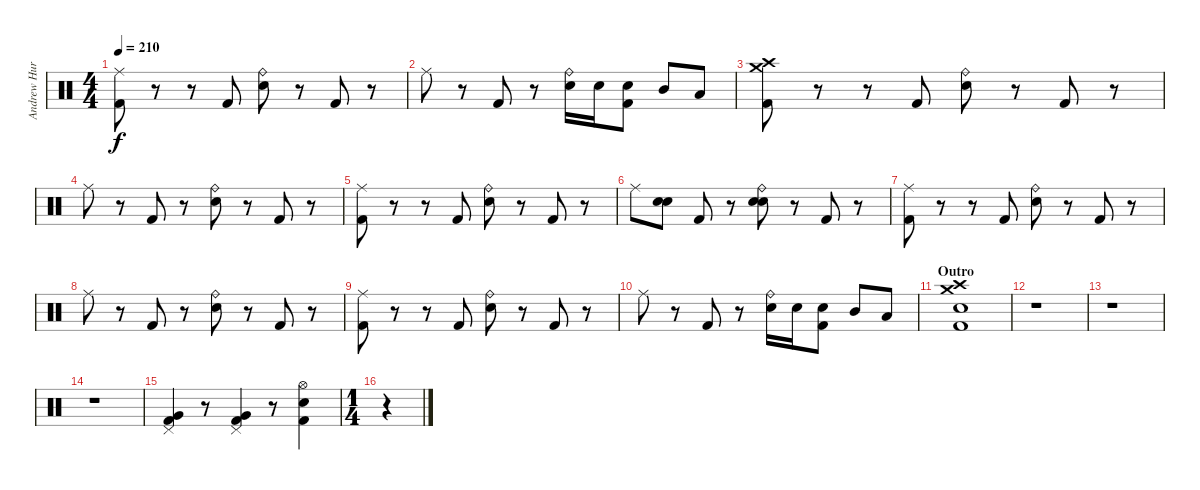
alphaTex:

\track ("Andrew Hurley (Drums)" "Andrew Hur") {instrument percussion}
\staff {score}
\articulation defaults
\ts (4 4)
\tempo 210
\clef neutral
\ks c
("Ride (middle)" "Kick (hit) 2").8{dy f} r.8 r.8 "Kick (hit) 2".8 ("Ride (bell)" "Electric Snare (hit)").8 r.8 "Kick (hit) 2".8 r.8 |
"Ride (middle)".8 r.8 "Kick (hit) 2".8 r.8 ("Ride (bell)" "Electric Snare (hit)").16 "Electric Snare (hit)".16 ("Electric Snare (hit)" "Kick (hit) 2").8 "Mid Tom (hit)".8 "Low Tom (hit)".8 |
("Crash medium (hit)" "Crash high (hit)" "Kick (hit) 2").8 r.8 r.8 "Kick (hit) 2".8 ("Ride (bell)" "Electric Snare (hit)").8 r.8 "Kick (hit) 2".8 r.8 |
"Ride (middle)".8 r.8 "Kick (hit) 2".8 r.8 ("Ride (bell)" "Electric Snare (hit)").8 r.8 "Kick (hit) 2".8 r.8 |
("Ride (middle)" "Kick (hit) 2").8 r.8 r.8 "Kick (hit) 2".8 ("Ride (bell)" "Electric Snare (hit)").8 r.8 "Kick (hit) 2".8 r.8 |
"Ride (middle)".8 ("Snare (hit) 2" "Electric Snare (hit)").8 "Kick (hit) 2".8 r.8 ("Ride (bell)" "Snare (hit) 2" "Electric Snare (hit)").8 r.8 "Kick (hit) 2".8 r.8 |
("Ride (middle)" "Kick (hit) 2").8 r.8 r.8 "Kick (hit) 2".8 ("Ride (bell)" "Electric Snare (hit)").8 r.8 "Kick (hit) 2".8 r.8 |
"Ride (middle)".8 r.8 "Kick (hit) 2".8 r.8 ("Ride (bell)" "Electric Snare (hit)").8 r.8 "Kick (hit) 2".8 r.8 |
("Ride (middle)" "Kick (hit) 2").8 r.8 r.8 "Kick (hit) 2".8 ("Ride (bell)" "Electric Snare (hit)").8 r.8 "Kick (hit) 2".8 r.8 |
"Ride (middle)".8 r.8 "Kick (hit) 2".8 r.8 ("Ride (bell)" "Electric Snare (hit)").16 "Electric Snare (hit)".16 ("Electric Snare (hit)" "Kick (hit) 2").8 "Mid Tom (hit)".8 "Low Tom (hit)".8 |
\section ("" "Outro")
("Crash high (hit)" "Crash medium (hit)" "Electric Snare (hit)" "Kick (hit) 2").1 |
r.1 |
r.1 |
r.1 |
("Pedal Hi-Hat (hit)" "Very Low Tom (hit)" "Kick (hit) 2").4 r.8 ("Pedal Hi-Hat (hit)" "Very Low Tom (hit)" "Kick (hit) 2").4 r.8 ("Hi-Hat (open)" "Electric Snare (hit)" "Kick (hit) 2").4 |
\ts (1 4)
r.4
